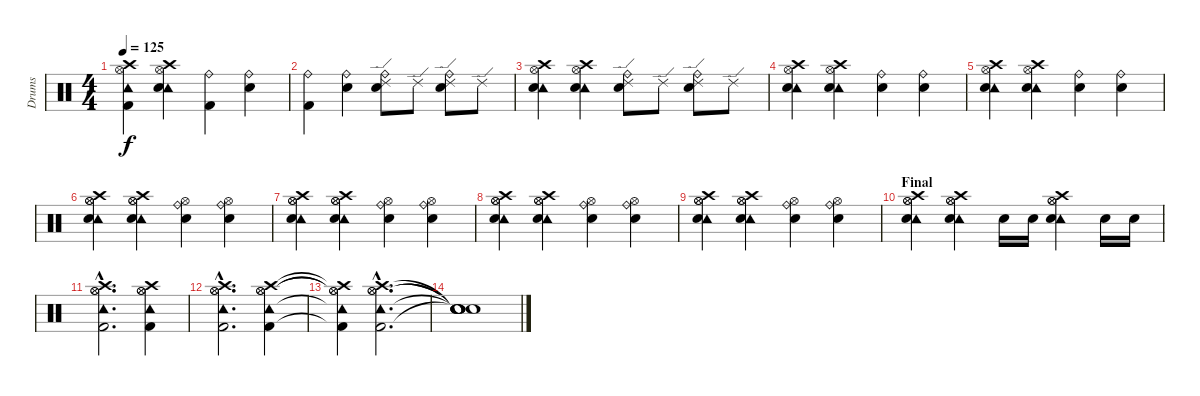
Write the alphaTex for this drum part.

\track ("Drums" "Drums") {instrument percussion}
\staff {score}
\articulation defaults
\ts (4 4)
\tempo 125
\clef neutral
\ks c
("Crash high (hit)" "Hi-Hat (open)" "Tambourine (hit)" "Kick (hit) 2").4{dy f} ("Crash high (hit)" "Hi-Hat (open)" "Tambourine (hit)" "Snare (hit) 2").4 ("Ride (bell)" "Kick (hit) 2").4 ("Ride (bell)" "Snare (hit) 2").4 |
("Ride (bell)" "Kick (hit) 2").4 ("Ride (bell)" "Snare (hit) 2").4 ("Ride (bell)" "Ride (edge) 2" "Snare (hit) 2").8 "Ride (edge) 2".8 ("Ride (bell)" "Ride (edge) 2" "Snare (hit) 2").8 "Ride (edge) 2".8 |
("Crash high (hit)" "Hi-Hat (open)" "Tambourine (hit)" "Snare (hit) 2").4 ("Crash high (hit)" "Hi-Hat (open)" "Tambourine (hit)" "Snare (hit) 2").4 ("Ride (bell)" "Ride (edge) 2" "Snare (hit) 2").8 "Ride (edge) 2".8 ("Ride (bell)" "Ride (edge) 2" "Snare (hit) 2").8 "Ride (edge) 2".8 |
("Crash high (hit)" "Hi-Hat (open)" "Tambourine (hit)" "Snare (hit) 2").4 ("Crash high (hit)" "Hi-Hat (open)" "Tambourine (hit)" "Snare (hit) 2").4 ("Ride (bell)" "Snare (hit) 2").4 ("Ride (bell)" "Snare (hit) 2").4 |
("Crash high (hit)" "Hi-Hat (open)" "Tambourine (hit)" "Snare (hit) 2").4 ("Crash high (hit)" "Hi-Hat (open)" "Tambourine (hit)" "Snare (hit) 2").4 ("Ride (bell)" "Snare (hit) 2").4 ("Ride (bell)" "Snare (hit) 2").4 |
("Crash high (hit)" "Hi-Hat (open)" "Tambourine (hit)" "Hi-Hat (open)" "Snare (hit) 2").4 ("Crash high (hit)" "Hi-Hat (open)" "Tambourine (hit)" "Hi-Hat (open)" "Snare (hit) 2").4 ("Ride (bell)" "Hi-Hat (open)" "Snare (hit) 2").4 ("Ride (bell)" "Hi-Hat (open)" "Snare (hit) 2").4 |
("Crash high (hit)" "Hi-Hat (open)" "Tambourine (hit)" "Hi-Hat (open)" "Snare (hit) 2").4 ("Crash high (hit)" "Hi-Hat (open)" "Tambourine (hit)" "Hi-Hat (open)" "Snare (hit) 2").4 ("Ride (bell)" "Hi-Hat (open)" "Snare (hit) 2").4 ("Ride (bell)" "Hi-Hat (open)" "Snare (hit) 2").4 |
("Crash high (hit)" "Hi-Hat (open)" "Tambourine (hit)" "Hi-Hat (open)" "Snare (hit) 2").4 ("Crash high (hit)" "Hi-Hat (open)" "Tambourine (hit)" "Hi-Hat (open)" "Snare (hit) 2").4 ("Ride (bell)" "Hi-Hat (open)" "Snare (hit) 2").4 ("Ride (bell)" "Hi-Hat (open)" "Snare (hit) 2").4 |
("Crash high (hit)" "Hi-Hat (open)" "Tambourine (hit)" "Hi-Hat (open)" "Snare (hit) 2").4 ("Crash high (hit)" "Hi-Hat (open)" "Tambourine (hit)" "Hi-Hat (open)" "Snare (hit) 2").4 ("Ride (bell)" "Hi-Hat (open)" "Snare (hit) 2").4 ("Ride (bell)" "Hi-Hat (open)" "Snare (hit) 2").4 |
\section ("" "Final")
("Crash high (hit)" "Hi-Hat (open)" "Tambourine (hit)" "Hi-Hat (open)" "Snare (hit) 2").4 ("Crash high (hit)" "Hi-Hat (open)" "Tambourine (hit)" "Hi-Hat (open)" "Snare (hit) 2").4 "Snare (hit) 2".16 "Snare (hit) 2".16 ("Crash high (hit)" "Hi-Hat (open)" "Tambourine (hit)" "Hi-Hat (open)" "Snare (hit) 2").4 "Snare (hit) 2".16 "Snare (hit) 2".16 |
("Crash high (hit)"{hac} "Hi-Hat (open)"{hac} "Tambourine (hit)"{hac} "Hi-Hat (open)"{hac} "Kick (hit) 2"{hac}).2{d} ("Crash high (hit)" "Hi-Hat (open)" "Tambourine (hit)" "Hi-Hat (open)" "Kick (hit) 2").4 |
("Crash high (hit)"{hac} "Hi-Hat (open)"{hac} "Tambourine (hit)"{hac} "Hi-Hat (open)"{hac} "Kick (hit) 2"{hac}).2{d} ("Crash high (hit)" "Hi-Hat (open)" "Tambourine (hit)" "Hi-Hat (open)" "Kick (hit) 2").4 |
("Crash high (hit)"{t} "Hi-Hat (open)"{t} "Tambourine (hit)"{t} "Hi-Hat (open)"{t} "Kick (hit) 2"{t}).4 ("Crash high (hit)"{hac} "Hi-Hat (open)"{hac} "Tambourine (hit)"{hac} "Hi-Hat (open)"{hac} "Kick (hit) 2"{hac}).2{d} |
("Snare (hit)"{t} "Snare (hit)"{t} "Snare (hit)"{t} "Snare (hit)"{t} "Snare (hit)"{t}).1
